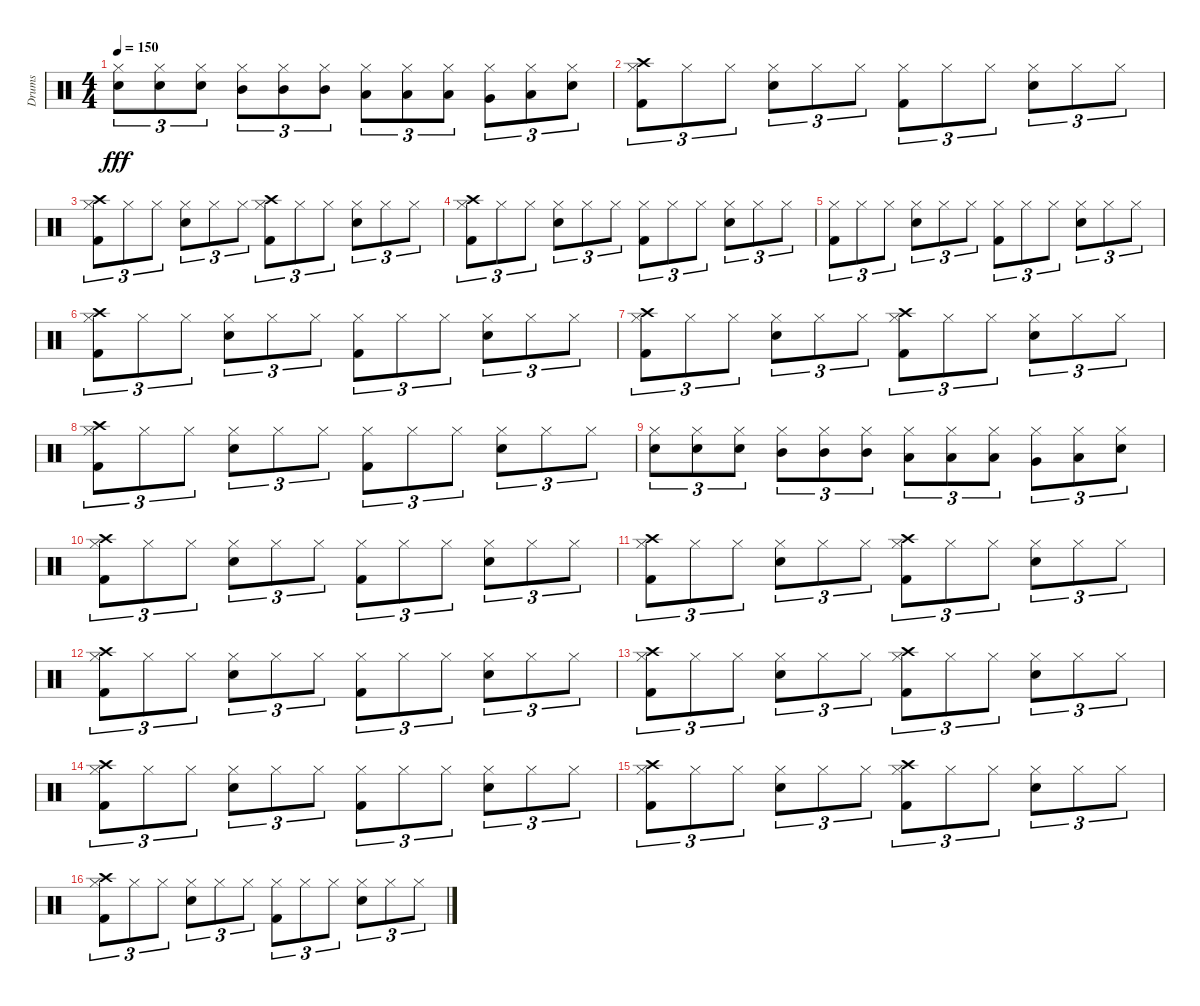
\track ("Drums" "Drums") {instrument percussion}
\staff {score}
\articulation defaults
\ts (4 4)
\tempo 150
\clef neutral
\ks c
("Snare (hit) 2" "Hi-Hat (closed)").8{tu (3 2) dy fff} ("Snare (hit) 2" "Hi-Hat (closed)").8{tu (3 2)} ("Snare (hit) 2" "Hi-Hat (closed)").8{tu (3 2)} ("Mid Tom (hit)" "Hi-Hat (closed)").8{tu (3 2)} ("Mid Tom (hit)" "Hi-Hat (closed)").8{tu (3 2)} ("Mid Tom (hit)" "Hi-Hat (closed)").8{tu (3 2)} ("Low Tom (hit)" "Hi-Hat (closed)").8{tu (3 2)} ("Low Tom (hit)" "Hi-Hat (closed)").8{tu (3 2)} ("Low Tom (hit)" "Hi-Hat (closed)").8{tu (3 2)} ("Very Low Tom (hit)" "Hi-Hat (closed)").8{tu (3 2)} ("Low Floor Tom (hit)" "Hi-Hat (closed)").8{tu (3 2)} ("Electric Snare (hit)" "Hi-Hat (closed)").8{tu (3 2)} |
("Hi-Hat (closed)" "Kick (hit) 2" "Crash high (hit)").8{tu (3 2)} "Hi-Hat (closed)".8{tu (3 2)} "Hi-Hat (closed)".8{tu (3 2)} ("Hi-Hat (closed)" "Snare (hit) 2").8{tu (3 2)} "Hi-Hat (closed)".8{tu (3 2)} "Hi-Hat (closed)".8{tu (3 2)} ("Hi-Hat (closed)" "Kick (hit) 2").8{tu (3 2)} "Hi-Hat (closed)".8{tu (3 2)} "Hi-Hat (closed)".8{tu (3 2)} ("Hi-Hat (closed)" "Snare (hit) 2").8{tu (3 2)} "Hi-Hat (closed)".8{tu (3 2)} "Hi-Hat (closed)".8{tu (3 2)} |
("Hi-Hat (closed)" "Kick (hit) 2" "Crash high (hit)").8{tu (3 2)} "Hi-Hat (closed)".8{tu (3 2)} "Hi-Hat (closed)".8{tu (3 2)} ("Hi-Hat (closed)" "Snare (hit) 2").8{tu (3 2)} "Hi-Hat (closed)".8{tu (3 2)} "Hi-Hat (closed)".8{tu (3 2)} ("Hi-Hat (closed)" "Kick (hit) 2" "Crash high (hit)").8{tu (3 2)} "Hi-Hat (closed)".8{tu (3 2)} "Hi-Hat (closed)".8{tu (3 2)} ("Hi-Hat (closed)" "Snare (hit) 2").8{tu (3 2)} "Hi-Hat (closed)".8{tu (3 2)} "Hi-Hat (closed)".8{tu (3 2)} |
("Hi-Hat (closed)" "Kick (hit) 2" "Crash high (hit)").8{tu (3 2)} "Hi-Hat (closed)".8{tu (3 2)} "Hi-Hat (closed)".8{tu (3 2)} ("Hi-Hat (closed)" "Snare (hit) 2").8{tu (3 2)} "Hi-Hat (closed)".8{tu (3 2)} "Hi-Hat (closed)".8{tu (3 2)} ("Hi-Hat (closed)" "Kick (hit) 2").8{tu (3 2)} "Hi-Hat (closed)".8{tu (3 2)} "Hi-Hat (closed)".8{tu (3 2)} ("Hi-Hat (closed)" "Snare (hit) 2").8{tu (3 2)} "Hi-Hat (closed)".8{tu (3 2)} "Hi-Hat (closed)".8{tu (3 2)} |
("Hi-Hat (closed)" "Kick (hit) 2").8{tu (3 2)} "Hi-Hat (closed)".8{tu (3 2)} "Hi-Hat (closed)".8{tu (3 2)} ("Hi-Hat (closed)" "Snare (hit) 2").8{tu (3 2)} "Hi-Hat (closed)".8{tu (3 2)} "Hi-Hat (closed)".8{tu (3 2)} ("Hi-Hat (closed)" "Kick (hit) 2").8{tu (3 2)} "Hi-Hat (closed)".8{tu (3 2)} "Hi-Hat (closed)".8{tu (3 2)} ("Hi-Hat (closed)" "Snare (hit) 2").8{tu (3 2)} "Hi-Hat (closed)".8{tu (3 2)} "Hi-Hat (closed)".8{tu (3 2)} |
("Hi-Hat (closed)" "Kick (hit) 2" "Crash high (hit)").8{tu (3 2)} "Hi-Hat (closed)".8{tu (3 2)} "Hi-Hat (closed)".8{tu (3 2)} ("Hi-Hat (closed)" "Snare (hit) 2").8{tu (3 2)} "Hi-Hat (closed)".8{tu (3 2)} "Hi-Hat (closed)".8{tu (3 2)} ("Hi-Hat (closed)" "Kick (hit) 2").8{tu (3 2)} "Hi-Hat (closed)".8{tu (3 2)} "Hi-Hat (closed)".8{tu (3 2)} ("Hi-Hat (closed)" "Snare (hit) 2").8{tu (3 2)} "Hi-Hat (closed)".8{tu (3 2)} "Hi-Hat (closed)".8{tu (3 2)} |
("Hi-Hat (closed)" "Kick (hit) 2" "Crash high (hit)").8{tu (3 2)} "Hi-Hat (closed)".8{tu (3 2)} "Hi-Hat (closed)".8{tu (3 2)} ("Hi-Hat (closed)" "Snare (hit) 2").8{tu (3 2)} "Hi-Hat (closed)".8{tu (3 2)} "Hi-Hat (closed)".8{tu (3 2)} ("Hi-Hat (closed)" "Kick (hit) 2" "Crash high (hit)").8{tu (3 2)} "Hi-Hat (closed)".8{tu (3 2)} "Hi-Hat (closed)".8{tu (3 2)} ("Hi-Hat (closed)" "Snare (hit) 2").8{tu (3 2)} "Hi-Hat (closed)".8{tu (3 2)} "Hi-Hat (closed)".8{tu (3 2)} |
("Hi-Hat (closed)" "Kick (hit) 2" "Crash high (hit)").8{tu (3 2)} "Hi-Hat (closed)".8{tu (3 2)} "Hi-Hat (closed)".8{tu (3 2)} ("Hi-Hat (closed)" "Snare (hit) 2").8{tu (3 2)} "Hi-Hat (closed)".8{tu (3 2)} "Hi-Hat (closed)".8{tu (3 2)} ("Hi-Hat (closed)" "Kick (hit) 2").8{tu (3 2)} "Hi-Hat (closed)".8{tu (3 2)} "Hi-Hat (closed)".8{tu (3 2)} ("Hi-Hat (closed)" "Snare (hit) 2").8{tu (3 2)} "Hi-Hat (closed)".8{tu (3 2)} "Hi-Hat (closed)".8{tu (3 2)} |
("Snare (hit) 2" "Hi-Hat (closed)").8{tu (3 2)} ("Snare (hit) 2" "Hi-Hat (closed)").8{tu (3 2)} ("Snare (hit) 2" "Hi-Hat (closed)").8{tu (3 2)} ("Mid Tom (hit)" "Hi-Hat (closed)").8{tu (3 2)} ("Mid Tom (hit)" "Hi-Hat (closed)").8{tu (3 2)} ("Mid Tom (hit)" "Hi-Hat (closed)").8{tu (3 2)} ("Low Tom (hit)" "Hi-Hat (closed)").8{tu (3 2)} ("Low Tom (hit)" "Hi-Hat (closed)").8{tu (3 2)} ("Low Tom (hit)" "Hi-Hat (closed)").8{tu (3 2)} ("Very Low Tom (hit)" "Hi-Hat (closed)").8{tu (3 2)} ("Low Floor Tom (hit)" "Hi-Hat (closed)").8{tu (3 2)} ("Electric Snare (hit)" "Hi-Hat (closed)").8{tu (3 2)} |
("Hi-Hat (closed)" "Kick (hit) 2" "Crash high (hit)").8{tu (3 2)} "Hi-Hat (closed)".8{tu (3 2)} "Hi-Hat (closed)".8{tu (3 2)} ("Hi-Hat (closed)" "Snare (hit) 2").8{tu (3 2)} "Hi-Hat (closed)".8{tu (3 2)} "Hi-Hat (closed)".8{tu (3 2)} ("Hi-Hat (closed)" "Kick (hit) 2").8{tu (3 2)} "Hi-Hat (closed)".8{tu (3 2)} "Hi-Hat (closed)".8{tu (3 2)} ("Hi-Hat (closed)" "Snare (hit) 2").8{tu (3 2)} "Hi-Hat (closed)".8{tu (3 2)} "Hi-Hat (closed)".8{tu (3 2)} |
("Hi-Hat (closed)" "Kick (hit) 2" "Crash high (hit)").8{tu (3 2)} "Hi-Hat (closed)".8{tu (3 2)} "Hi-Hat (closed)".8{tu (3 2)} ("Hi-Hat (closed)" "Snare (hit) 2").8{tu (3 2)} "Hi-Hat (closed)".8{tu (3 2)} "Hi-Hat (closed)".8{tu (3 2)} ("Hi-Hat (closed)" "Kick (hit) 2" "Crash high (hit)").8{tu (3 2)} "Hi-Hat (closed)".8{tu (3 2)} "Hi-Hat (closed)".8{tu (3 2)} ("Hi-Hat (closed)" "Snare (hit) 2").8{tu (3 2)} "Hi-Hat (closed)".8{tu (3 2)} "Hi-Hat (closed)".8{tu (3 2)} |
("Hi-Hat (closed)" "Kick (hit) 2" "Crash high (hit)").8{tu (3 2)} "Hi-Hat (closed)".8{tu (3 2)} "Hi-Hat (closed)".8{tu (3 2)} ("Hi-Hat (closed)" "Snare (hit) 2").8{tu (3 2)} "Hi-Hat (closed)".8{tu (3 2)} "Hi-Hat (closed)".8{tu (3 2)} ("Hi-Hat (closed)" "Kick (hit) 2").8{tu (3 2)} "Hi-Hat (closed)".8{tu (3 2)} "Hi-Hat (closed)".8{tu (3 2)} ("Hi-Hat (closed)" "Snare (hit) 2").8{tu (3 2)} "Hi-Hat (closed)".8{tu (3 2)} "Hi-Hat (closed)".8{tu (3 2)} |
("Hi-Hat (closed)" "Kick (hit) 2" "Crash high (hit)").8{tu (3 2)} "Hi-Hat (closed)".8{tu (3 2)} "Hi-Hat (closed)".8{tu (3 2)} ("Hi-Hat (closed)" "Snare (hit) 2").8{tu (3 2)} "Hi-Hat (closed)".8{tu (3 2)} "Hi-Hat (closed)".8{tu (3 2)} ("Hi-Hat (closed)" "Kick (hit) 2" "Crash high (hit)").8{tu (3 2)} "Hi-Hat (closed)".8{tu (3 2)} "Hi-Hat (closed)".8{tu (3 2)} ("Hi-Hat (closed)" "Snare (hit) 2").8{tu (3 2)} "Hi-Hat (closed)".8{tu (3 2)} "Hi-Hat (closed)".8{tu (3 2)} |
("Hi-Hat (closed)" "Kick (hit) 2" "Crash high (hit)").8{tu (3 2)} "Hi-Hat (closed)".8{tu (3 2)} "Hi-Hat (closed)".8{tu (3 2)} ("Hi-Hat (closed)" "Snare (hit) 2").8{tu (3 2)} "Hi-Hat (closed)".8{tu (3 2)} "Hi-Hat (closed)".8{tu (3 2)} ("Hi-Hat (closed)" "Kick (hit) 2").8{tu (3 2)} "Hi-Hat (closed)".8{tu (3 2)} "Hi-Hat (closed)".8{tu (3 2)} ("Hi-Hat (closed)" "Snare (hit) 2").8{tu (3 2)} "Hi-Hat (closed)".8{tu (3 2)} "Hi-Hat (closed)".8{tu (3 2)} |
("Hi-Hat (closed)" "Kick (hit) 2" "Crash high (hit)").8{tu (3 2)} "Hi-Hat (closed)".8{tu (3 2)} "Hi-Hat (closed)".8{tu (3 2)} ("Hi-Hat (closed)" "Snare (hit) 2").8{tu (3 2)} "Hi-Hat (closed)".8{tu (3 2)} "Hi-Hat (closed)".8{tu (3 2)} ("Hi-Hat (closed)" "Kick (hit) 2" "Crash high (hit)").8{tu (3 2)} "Hi-Hat (closed)".8{tu (3 2)} "Hi-Hat (closed)".8{tu (3 2)} ("Hi-Hat (closed)" "Snare (hit) 2").8{tu (3 2)} "Hi-Hat (closed)".8{tu (3 2)} "Hi-Hat (closed)".8{tu (3 2)} |
("Hi-Hat (closed)" "Kick (hit) 2" "Crash high (hit)").8{tu (3 2)} "Hi-Hat (closed)".8{tu (3 2)} "Hi-Hat (closed)".8{tu (3 2)} ("Hi-Hat (closed)" "Snare (hit) 2").8{tu (3 2)} "Hi-Hat (closed)".8{tu (3 2)} "Hi-Hat (closed)".8{tu (3 2)} ("Hi-Hat (closed)" "Kick (hit) 2").8{tu (3 2)} "Hi-Hat (closed)".8{tu (3 2)} "Hi-Hat (closed)".8{tu (3 2)} ("Hi-Hat (closed)" "Snare (hit) 2").8{tu (3 2)} "Hi-Hat (closed)".8{tu (3 2)} "Hi-Hat (closed)".8{tu (3 2)}
